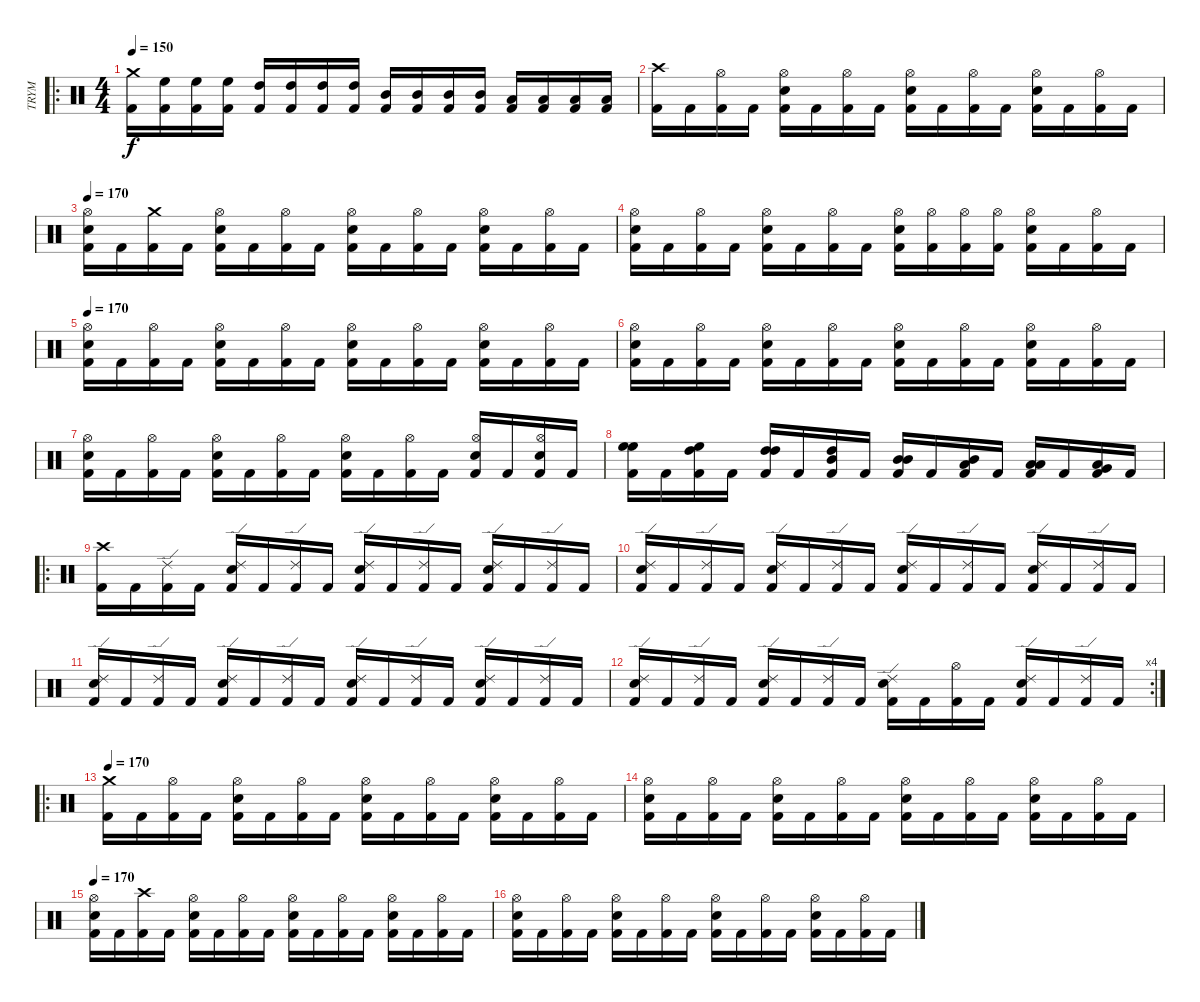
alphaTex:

\track ("TRYM" "TRYM") {instrument percussion}
\staff {score}
\articulation defaults
\ro
\ts (4 4)
\tempo 150
\tempo 170
\tempo 150
\clef neutral
\ks c
("Kick (hit) 2" "Crash medium (hit)").16{dy f} ("Kick (hit) 2" "High Floor Tom (hit)").16 ("Kick (hit) 2" "High Floor Tom (hit)").16 ("Kick (hit) 2" "High Floor Tom (hit)").16 ("Kick (hit) 2" "High Tom (hit)").16 ("Kick (hit) 2" "High Tom (hit)").16 ("Kick (hit) 2" "High Tom (hit)").16 ("Kick (hit) 2" "High Tom (hit)").16 ("Kick (hit) 2" "Mid Tom (hit)").16 ("Kick (hit) 2" "Mid Tom (hit)").16 ("Kick (hit) 2" "Mid Tom (hit)").16 ("Kick (hit) 2" "Mid Tom (hit)").16 ("Kick (hit) 2" "Low Tom (hit)").16 ("Kick (hit) 2" "Low Tom (hit)").16 ("Kick (hit) 2" "Low Tom (hit)").16 ("Kick (hit) 2" "Low Tom (hit)").16 |
("Kick (hit) 2" "Crash high (hit)").16 "Kick (hit) 2".16 ("Kick (hit) 2" "Hi-Hat (open)").16 "Kick (hit) 2".16 ("Kick (hit) 2" "Hi-Hat (open)" "Electric Snare (hit)").16 "Kick (hit) 2".16 ("Kick (hit) 2" "Hi-Hat (open)").16 "Kick (hit) 2".16 ("Kick (hit) 2" "Hi-Hat (open)" "Electric Snare (hit)").16 "Kick (hit) 2".16 ("Kick (hit) 2" "Hi-Hat (open)").16 "Kick (hit) 2".16 ("Kick (hit) 2" "Hi-Hat (open)" "Electric Snare (hit)").16 "Kick (hit) 2".16 ("Kick (hit) 2" "Hi-Hat (open)").16 "Kick (hit) 2".16 |
\tempo 170
("Kick (hit) 2" "Hi-Hat (open)" "Electric Snare (hit)").16 "Kick (hit) 2".16 ("Kick (hit) 2" "Crash medium (hit)").16 "Kick (hit) 2".16 ("Kick (hit) 2" "Hi-Hat (open)" "Electric Snare (hit)").16 "Kick (hit) 2".16 ("Kick (hit) 2" "Hi-Hat (open)").16 "Kick (hit) 2".16 ("Kick (hit) 2" "Hi-Hat (open)" "Electric Snare (hit)").16 "Kick (hit) 2".16 ("Kick (hit) 2" "Hi-Hat (open)").16 "Kick (hit) 2".16 ("Kick (hit) 2" "Hi-Hat (open)" "Electric Snare (hit)").16 "Kick (hit) 2".16 ("Kick (hit) 2" "Hi-Hat (open)").16 "Kick (hit) 2".16 |
("Kick (hit) 2" "Hi-Hat (open)" "Electric Snare (hit)").16 "Kick (hit) 2".16 ("Kick (hit) 2" "Hi-Hat (open)").16 "Kick (hit) 2".16 ("Kick (hit) 2" "Hi-Hat (open)" "Electric Snare (hit)").16 "Kick (hit) 2".16 ("Kick (hit) 2" "Hi-Hat (open)").16 "Kick (hit) 2".16 ("Kick (hit) 2" "Hi-Hat (open)" "Electric Snare (hit)").16 ("Kick (hit) 2" "Hi-Hat (open)").16 ("Kick (hit) 2" "Hi-Hat (open)").16 ("Kick (hit) 2" "Hi-Hat (open)").16 ("Kick (hit) 2" "Hi-Hat (open)" "Electric Snare (hit)").16 "Kick (hit) 2".16 ("Kick (hit) 2" "Hi-Hat (open)").16 "Kick (hit) 2".16 |
\tempo 170
("Kick (hit) 2" "Hi-Hat (open)" "Electric Snare (hit)").16 "Kick (hit) 2".16 ("Kick (hit) 2" "Hi-Hat (open)").16 "Kick (hit) 2".16 ("Kick (hit) 2" "Hi-Hat (open)" "Electric Snare (hit)").16 "Kick (hit) 2".16 ("Kick (hit) 2" "Hi-Hat (open)").16 "Kick (hit) 2".16 ("Kick (hit) 2" "Hi-Hat (open)" "Electric Snare (hit)").16 "Kick (hit) 2".16 ("Kick (hit) 2" "Hi-Hat (open)").16 "Kick (hit) 2".16 ("Kick (hit) 2" "Hi-Hat (open)" "Electric Snare (hit)").16 "Kick (hit) 2".16 ("Kick (hit) 2" "Hi-Hat (open)").16 "Kick (hit) 2".16 |
("Kick (hit) 2" "Hi-Hat (open)" "Electric Snare (hit)").16 "Kick (hit) 2".16 ("Kick (hit) 2" "Hi-Hat (open)").16 "Kick (hit) 2".16 ("Kick (hit) 2" "Hi-Hat (open)" "Electric Snare (hit)").16 "Kick (hit) 2".16 ("Kick (hit) 2" "Hi-Hat (open)").16 "Kick (hit) 2".16 ("Kick (hit) 2" "Hi-Hat (open)" "Electric Snare (hit)").16 "Kick (hit) 2".16 ("Kick (hit) 2" "Hi-Hat (open)").16 "Kick (hit) 2".16 ("Kick (hit) 2" "Hi-Hat (open)" "Electric Snare (hit)").16 "Kick (hit) 2".16 ("Kick (hit) 2" "Hi-Hat (open)").16 "Kick (hit) 2".16 |
("Kick (hit) 2" "Hi-Hat (open)" "Electric Snare (hit)").16 "Kick (hit) 2".16 ("Kick (hit) 2" "Hi-Hat (open)").16 "Kick (hit) 2".16 ("Kick (hit) 2" "Hi-Hat (open)" "Electric Snare (hit)").16 "Kick (hit) 2".16 ("Kick (hit) 2" "Hi-Hat (open)").16 "Kick (hit) 2".16 ("Kick (hit) 2" "Hi-Hat (open)" "Electric Snare (hit)").16 "Kick (hit) 2".16 ("Kick (hit) 2" "Hi-Hat (open)").16 "Kick (hit) 2".16 ("Kick (hit) 2" "Hi-Hat (open)" "Electric Snare (hit)").16 "Kick (hit) 2".16 ("Kick (hit) 2" "Hi-Hat (open)" "Electric Snare (hit)").16 "Kick (hit) 2".16 |
("Kick (hit) 2" "High Floor Tom (hit)" "High Floor Tom (hit)").16 "Kick (hit) 2".16 ("Kick (hit) 2" "High Tom (hit)" "High Floor Tom (hit)").16 "Kick (hit) 2".16 ("Kick (hit) 2" "High Tom (hit)" "High Tom (hit)").16 "Kick (hit) 2".16 ("Kick (hit) 2" "Mid Tom (hit)" "High Tom (hit)").16 "Kick (hit) 2".16 ("Kick (hit) 2" "Mid Tom (hit)" "Mid Tom (hit)").16 "Kick (hit) 2".16 ("Kick (hit) 2" "Low Tom (hit)" "Mid Tom (hit)").16 "Kick (hit) 2".16 ("Kick (hit) 2" "Low Tom (hit)" "Low Tom (hit)").16 "Kick (hit) 2".16 ("Kick (hit) 2" "Very Low Tom (hit)" "Low Tom (hit)").16 "Kick (hit) 2".16 |
\ro
("Kick (hit) 2" "Crash high (hit)").16 "Kick (hit) 2".16 ("Kick (hit) 2" "Ride (edge) 2").16 "Kick (hit) 2".16 ("Kick (hit) 2" "Ride (edge) 2" "Electric Snare (hit)").16 "Kick (hit) 2".16 ("Kick (hit) 2" "Ride (edge) 2").16 "Kick (hit) 2".16 ("Kick (hit) 2" "Ride (edge) 2" "Electric Snare (hit)").16 "Kick (hit) 2".16 ("Kick (hit) 2" "Ride (edge) 2").16 "Kick (hit) 2".16 ("Kick (hit) 2" "Ride (edge) 2" "Electric Snare (hit)").16 "Kick (hit) 2".16 ("Kick (hit) 2" "Ride (edge) 2").16 "Kick (hit) 2".16 |
("Kick (hit) 2" "Ride (edge) 2" "Electric Snare (hit)").16 "Kick (hit) 2".16 ("Kick (hit) 2" "Ride (edge) 2").16 "Kick (hit) 2".16 ("Kick (hit) 2" "Ride (edge) 2" "Electric Snare (hit)").16 "Kick (hit) 2".16 ("Kick (hit) 2" "Ride (edge) 2").16 "Kick (hit) 2".16 ("Kick (hit) 2" "Ride (edge) 2" "Electric Snare (hit)").16 "Kick (hit) 2".16 ("Kick (hit) 2" "Ride (edge) 2").16 "Kick (hit) 2".16 ("Kick (hit) 2" "Ride (edge) 2" "Electric Snare (hit)").16 "Kick (hit) 2".16 ("Kick (hit) 2" "Ride (edge) 2").16 "Kick (hit) 2".16 |
("Kick (hit) 2" "Ride (edge) 2" "Electric Snare (hit)").16 "Kick (hit) 2".16 ("Kick (hit) 2" "Ride (edge) 2").16 "Kick (hit) 2".16 ("Kick (hit) 2" "Ride (edge) 2" "Electric Snare (hit)").16 "Kick (hit) 2".16 ("Kick (hit) 2" "Ride (edge) 2").16 "Kick (hit) 2".16 ("Kick (hit) 2" "Ride (edge) 2" "Electric Snare (hit)").16 "Kick (hit) 2".16 ("Kick (hit) 2" "Ride (edge) 2").16 "Kick (hit) 2".16 ("Kick (hit) 2" "Ride (edge) 2" "Electric Snare (hit)").16 "Kick (hit) 2".16 ("Kick (hit) 2" "Ride (edge) 2").16 "Kick (hit) 2".16 |
\rc 4
("Kick (hit) 2" "Ride (edge) 2" "Electric Snare (hit)").16 "Kick (hit) 2".16 ("Kick (hit) 2" "Ride (edge) 2").16 "Kick (hit) 2".16 ("Kick (hit) 2" "Ride (edge) 2" "Electric Snare (hit)").16 "Kick (hit) 2".16 ("Kick (hit) 2" "Ride (edge) 2").16 "Kick (hit) 2".16 ("Kick (hit) 2" "Ride (edge) 2" "Electric Snare (hit)").16 "Kick (hit) 2".16 ("Kick (hit) 2" "Hi-Hat (open)").16 "Kick (hit) 2".16 ("Kick (hit) 2" "Ride (edge) 2" "Electric Snare (hit)").16 "Kick (hit) 2".16 ("Kick (hit) 2" "Ride (edge) 2").16 "Kick (hit) 2".16 |
\ro
\tempo 170
("Kick (hit) 2" "Crash medium (hit)").16 "Kick (hit) 2".16 ("Kick (hit) 2" "Hi-Hat (open)").16 "Kick (hit) 2".16 ("Kick (hit) 2" "Hi-Hat (open)" "Electric Snare (hit)").16 "Kick (hit) 2".16 ("Kick (hit) 2" "Hi-Hat (open)").16 "Kick (hit) 2".16 ("Kick (hit) 2" "Hi-Hat (open)" "Electric Snare (hit)").16 "Kick (hit) 2".16 ("Kick (hit) 2" "Hi-Hat (open)").16 "Kick (hit) 2".16 ("Kick (hit) 2" "Hi-Hat (open)" "Electric Snare (hit)").16 "Kick (hit) 2".16 ("Kick (hit) 2" "Hi-Hat (open)").16 "Kick (hit) 2".16 |
("Kick (hit) 2" "Hi-Hat (open)" "Electric Snare (hit)").16 "Kick (hit) 2".16 ("Kick (hit) 2" "Hi-Hat (open)").16 "Kick (hit) 2".16 ("Kick (hit) 2" "Hi-Hat (open)" "Electric Snare (hit)").16 "Kick (hit) 2".16 ("Kick (hit) 2" "Hi-Hat (open)").16 "Kick (hit) 2".16 ("Kick (hit) 2" "Hi-Hat (open)" "Electric Snare (hit)").16 "Kick (hit) 2".16 ("Kick (hit) 2" "Hi-Hat (open)").16 "Kick (hit) 2".16 ("Kick (hit) 2" "Hi-Hat (open)" "Electric Snare (hit)").16 "Kick (hit) 2".16 ("Kick (hit) 2" "Hi-Hat (open)").16 "Kick (hit) 2".16 |
\tempo 170
("Kick (hit) 2" "Hi-Hat (open)" "Electric Snare (hit)").16 "Kick (hit) 2".16 ("Kick (hit) 2" "Crash high (hit)").16 "Kick (hit) 2".16 ("Kick (hit) 2" "Hi-Hat (open)" "Electric Snare (hit)").16 "Kick (hit) 2".16 ("Kick (hit) 2" "Hi-Hat (open)").16 "Kick (hit) 2".16 ("Kick (hit) 2" "Hi-Hat (open)" "Electric Snare (hit)").16 "Kick (hit) 2".16 ("Kick (hit) 2" "Hi-Hat (open)").16 "Kick (hit) 2".16 ("Kick (hit) 2" "Hi-Hat (open)" "Electric Snare (hit)").16 "Kick (hit) 2".16 ("Kick (hit) 2" "Hi-Hat (open)").16 "Kick (hit) 2".16 |
("Kick (hit) 2" "Hi-Hat (open)" "Electric Snare (hit)").16 "Kick (hit) 2".16 ("Kick (hit) 2" "Hi-Hat (open)").16 "Kick (hit) 2".16 ("Kick (hit) 2" "Hi-Hat (open)" "Electric Snare (hit)").16 "Kick (hit) 2".16 ("Kick (hit) 2" "Hi-Hat (open)").16 "Kick (hit) 2".16 ("Kick (hit) 2" "Hi-Hat (open)" "Electric Snare (hit)").16 "Kick (hit) 2".16 ("Kick (hit) 2" "Hi-Hat (open)").16 "Kick (hit) 2".16 ("Kick (hit) 2" "Hi-Hat (open)" "Electric Snare (hit)").16 "Kick (hit) 2".16 ("Kick (hit) 2" "Hi-Hat (open)").16 "Kick (hit) 2".16
